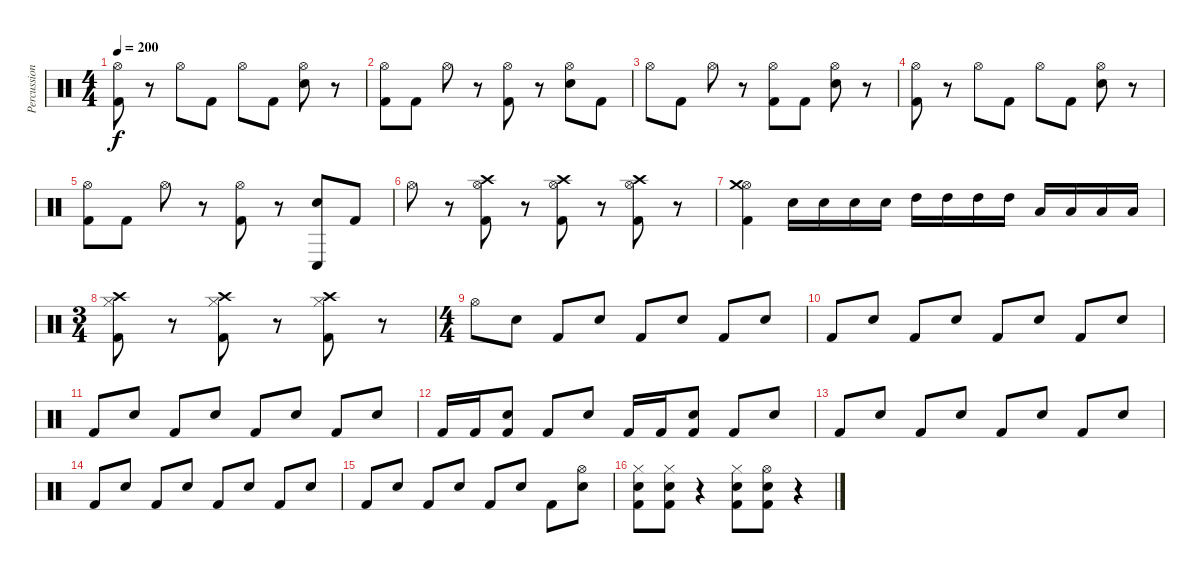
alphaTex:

\track ("Percussions" "Percussion") {instrument percussion}
\staff {score}
\articulation defaults
\ts (4 4)
\tempo 200
\clef neutral
\ks c
("Hi-Hat (open)" "Kick (hit) 2").8{dy f} r.8 "Hi-Hat (open)".8 "Kick (hit) 2".8 "Hi-Hat (open)".8 "Kick (hit) 2".8 ("Hi-Hat (open)" "Electric Snare (hit)").8 r.8 |
("Hi-Hat (open)" "Kick (hit) 2").8 "Kick (hit) 2".8 "Hi-Hat (open)".8 r.8 ("Hi-Hat (open)" "Kick (hit) 2").8 r.8 ("Hi-Hat (open)" "Electric Snare (hit)").8 "Kick (hit) 2".8 |
"Hi-Hat (open)".8 "Kick (hit) 2".8 "Hi-Hat (open)".8 r.8 ("Hi-Hat (open)" "Kick (hit) 2").8 "Kick (hit) 2".8 ("Hi-Hat (open)" "Electric Snare (hit)").8 r.8 |
("Hi-Hat (open)" "Kick (hit) 2").8 r.8 "Hi-Hat (open)".8 "Kick (hit) 2".8 "Hi-Hat (open)".8 "Kick (hit) 2".8 ("Hi-Hat (open)" "Electric Snare (hit)").8 r.8 |
("Hi-Hat (open)" "Kick (hit) 2").8 "Kick (hit) 2".8 "Hi-Hat (open)".8 r.8 ("Hi-Hat (open)" "Kick (hit) 2").8 r.8 ("Conga low (hit)" "Electric Snare (hit)").8 "Kick (hit) 2".8 |
"Hi-Hat (open)".8 r.8 ("Hi-Hat (open)" "Crash high (hit)" "Kick (hit) 2").8 r.8 ("Hi-Hat (open)" "Crash high (hit)" "Kick (hit) 2").8 r.8 ("Hi-Hat (open)" "Crash high (hit)" "Kick (hit) 2").8 r.8 |
("Hi-Hat (open)" "Crash medium (hit)" "Kick (hit) 2").4 "Electric Snare (hit)".16 "Electric Snare (hit)".16 "Electric Snare (hit)".16 "Electric Snare (hit)".16 "High Tom (hit)".16 "High Tom (hit)".16 "High Tom (hit)".16 "High Tom (hit)".16 "Low Tom (hit)".16 "Low Tom (hit)".16 "Low Tom (hit)".16 "Low Tom (hit)".16 |
\ts (3 4)
("Hi-Hat (closed)" "Crash high (hit)" "Kick (hit) 2").8 r.8 ("Hi-Hat (closed)" "Crash high (hit)" "Kick (hit) 2").8 r.8 ("Hi-Hat (closed)" "Crash high (hit)" "Kick (hit) 2").8 r.8 |
\ts (4 4)
"Hi-Hat (open)".8 "Electric Snare (hit)".8 "Kick (hit) 2".8 "Electric Snare (hit)".8 "Kick (hit) 2".8 "Electric Snare (hit)".8 "Kick (hit) 2".8 "Electric Snare (hit)".8 |
"Kick (hit) 2".8 "Electric Snare (hit)".8 "Kick (hit) 2".8 "Electric Snare (hit)".8 "Kick (hit) 2".8 "Electric Snare (hit)".8 "Kick (hit) 2".8 "Electric Snare (hit)".8 |
"Kick (hit) 2".8 "Electric Snare (hit)".8 "Kick (hit) 2".8 "Electric Snare (hit)".8 "Kick (hit) 2".8 "Electric Snare (hit)".8 "Kick (hit) 2".8 "Electric Snare (hit)".8 |
"Kick (hit) 2".16 "Kick (hit) 2".16 ("Electric Snare (hit)" "Kick (hit) 2").8 "Kick (hit) 2".8 "Electric Snare (hit)".8 "Kick (hit) 2".16 "Kick (hit) 2".16 ("Electric Snare (hit)" "Kick (hit) 2").8 "Kick (hit) 2".8 "Electric Snare (hit)".8 |
"Kick (hit) 2".8 "Electric Snare (hit)".8 "Kick (hit) 2".8 "Electric Snare (hit)".8 "Kick (hit) 2".8 "Electric Snare (hit)".8 "Kick (hit) 2".8 "Electric Snare (hit)".8 |
"Kick (hit) 2".8 "Electric Snare (hit)".8 "Kick (hit) 2".8 "Electric Snare (hit)".8 "Kick (hit) 2".8 "Electric Snare (hit)".8 "Kick (hit) 2".8 "Electric Snare (hit)".8 |
"Kick (hit) 2".8 "Electric Snare (hit)".8 "Kick (hit) 2".8 "Electric Snare (hit)".8 "Kick (hit) 2".8 "Electric Snare (hit)".8 "Kick (hit) 2".8 ("Hi-Hat (open)" "Electric Snare (hit)").8 |
("Hi-Hat (closed)" "Electric Snare (hit)" "Kick (hit) 2").8 ("Hi-Hat (closed)" "Electric Snare (hit)" "Kick (hit) 2").8 r.4 ("Hi-Hat (closed)" "Electric Snare (hit)" "Kick (hit) 2").8 ("Hi-Hat (open)" "Electric Snare (hit)" "Kick (hit) 2").8 r.4
